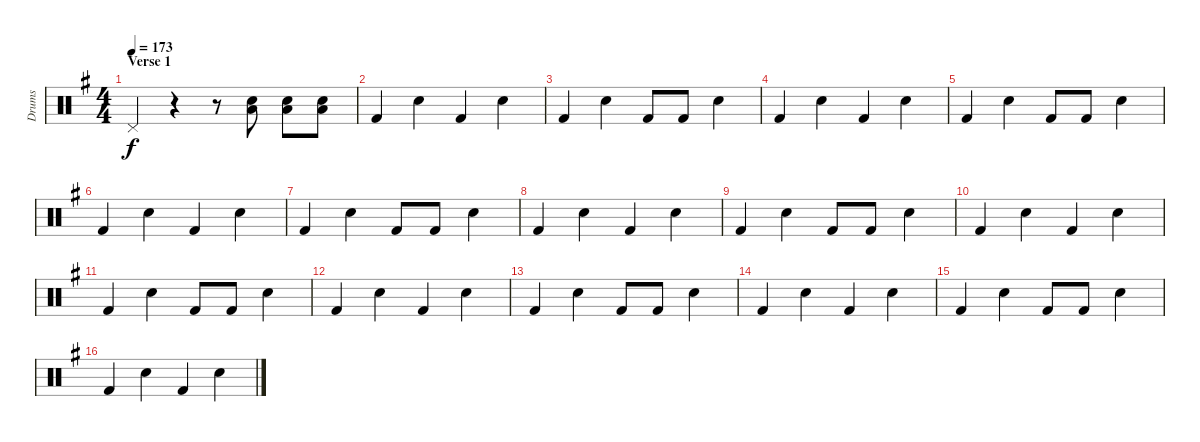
\track ("Drums" "Drums") {instrument percussion}
\staff {score}
\articulation defaults
\ts (4 4)
\section ("" "Verse 1")
\tempo 173
\clef neutral
\ks g "Pedal Hi-Hat (hit)".4{dy f}
r.4 r.8 ("Snare (hit) 2" "Low Tom (hit)").8 ("Snare (hit) 2" "Low Tom (hit)").8 ("Snare (hit) 2" "Low Tom (hit)").8 |
"Kick (hit) 2".4 "Snare (hit) 2".4 "Kick (hit) 2".4 "Snare (hit) 2".4 |
"Kick (hit) 2".4 "Snare (hit) 2".4 "Kick (hit) 2".8 "Kick (hit) 2".8 "Snare (hit) 2".4 |
"Kick (hit) 2".4 "Snare (hit) 2".4 "Kick (hit) 2".4 "Snare (hit) 2".4 |
"Kick (hit) 2".4 "Snare (hit) 2".4 "Kick (hit) 2".8 "Kick (hit) 2".8 "Snare (hit) 2".4 |
"Kick (hit) 2".4 "Snare (hit) 2".4 "Kick (hit) 2".4 "Snare (hit) 2".4 |
"Kick (hit) 2".4 "Snare (hit) 2".4 "Kick (hit) 2".8 "Kick (hit) 2".8 "Snare (hit) 2".4 |
"Kick (hit) 2".4 "Snare (hit) 2".4 "Kick (hit) 2".4 "Snare (hit) 2".4 |
"Kick (hit) 2".4 "Snare (hit) 2".4 "Kick (hit) 2".8 "Kick (hit) 2".8 "Snare (hit) 2".4 |
"Kick (hit) 2".4 "Snare (hit) 2".4 "Kick (hit) 2".4 "Snare (hit) 2".4 |
"Kick (hit) 2".4 "Snare (hit) 2".4 "Kick (hit) 2".8 "Kick (hit) 2".8 "Snare (hit) 2".4 |
"Kick (hit) 2".4 "Snare (hit) 2".4 "Kick (hit) 2".4 "Snare (hit) 2".4 |
"Kick (hit) 2".4 "Snare (hit) 2".4 "Kick (hit) 2".8 "Kick (hit) 2".8 "Snare (hit) 2".4 |
"Kick (hit) 2".4 "Snare (hit) 2".4 "Kick (hit) 2".4 "Snare (hit) 2".4 |
"Kick (hit) 2".4 "Snare (hit) 2".4 "Kick (hit) 2".8 "Kick (hit) 2".8 "Snare (hit) 2".4 |
"Kick (hit) 2".4 "Snare (hit) 2".4 "Kick (hit) 2".4 "Snare (hit) 2".4
